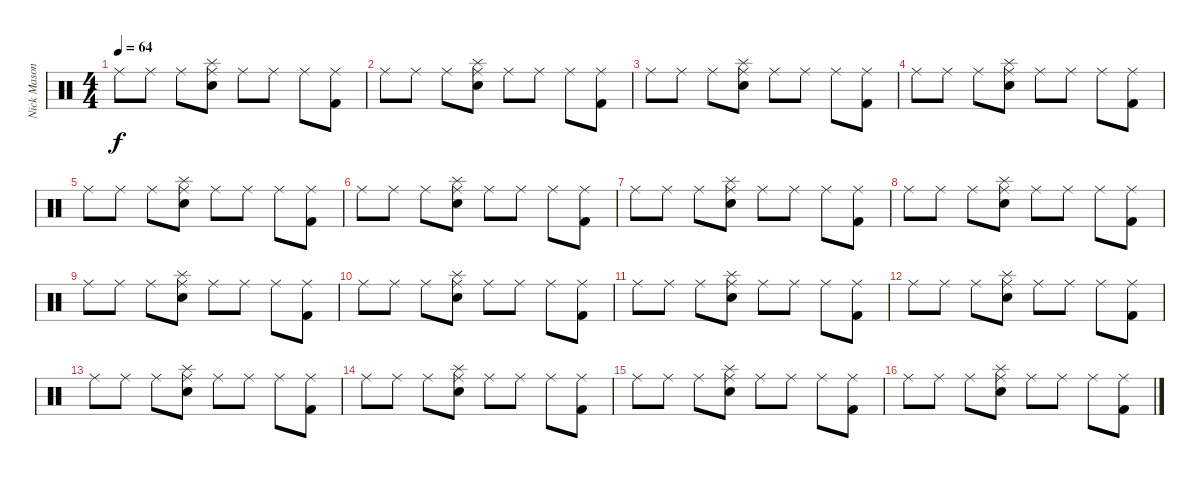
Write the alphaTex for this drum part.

\track ("Nick Mason" "Nick Mason") {instrument percussion}
\staff {score}
\articulation defaults
\ts (4 4)
\tempo 64
\clef neutral
\ks c "Ride (middle)".8{dy f} "Ride (middle)".8 "Ride (middle)".8
("Ride (middle)" "Splash (hit)" "Electric Snare (hit)").8 "Ride (middle)".8 "Ride (middle)".8 "Ride (middle)".8 ("Ride (middle)" "Kick (hit) 2").8 |
"Ride (middle)".8 "Ride (middle)".8 "Ride (middle)".8 ("Ride (middle)" "Splash (hit)" "Electric Snare (hit)").8 "Ride (middle)".8 "Ride (middle)".8 "Ride (middle)".8 ("Ride (middle)" "Kick (hit) 2").8 |
"Ride (middle)".8 "Ride (middle)".8 "Ride (middle)".8 ("Ride (middle)" "Splash (hit)" "Electric Snare (hit)").8 "Ride (middle)".8 "Ride (middle)".8 "Ride (middle)".8 ("Ride (middle)" "Kick (hit) 2").8 |
"Ride (middle)".8 "Ride (middle)".8 "Ride (middle)".8 ("Ride (middle)" "Splash (hit)" "Electric Snare (hit)").8 "Ride (middle)".8 "Ride (middle)".8 "Ride (middle)".8 ("Ride (middle)" "Kick (hit) 2").8 |
"Ride (middle)".8 "Ride (middle)".8 "Ride (middle)".8 ("Ride (middle)" "Splash (hit)" "Electric Snare (hit)").8 "Ride (middle)".8 "Ride (middle)".8 "Ride (middle)".8 ("Ride (middle)" "Kick (hit) 2").8 |
"Ride (middle)".8 "Ride (middle)".8 "Ride (middle)".8 ("Ride (middle)" "Splash (hit)" "Electric Snare (hit)").8 "Ride (middle)".8 "Ride (middle)".8 "Ride (middle)".8 ("Ride (middle)" "Kick (hit) 2").8 |
"Ride (middle)".8 "Ride (middle)".8 "Ride (middle)".8 ("Ride (middle)" "Splash (hit)" "Electric Snare (hit)").8 "Ride (middle)".8 "Ride (middle)".8 "Ride (middle)".8 ("Ride (middle)" "Kick (hit) 2").8 |
"Ride (middle)".8 "Ride (middle)".8 "Ride (middle)".8 ("Ride (middle)" "Splash (hit)" "Electric Snare (hit)").8 "Ride (middle)".8 "Ride (middle)".8 "Ride (middle)".8 ("Ride (middle)" "Kick (hit) 2").8 |
"Ride (middle)".8 "Ride (middle)".8 "Ride (middle)".8 ("Ride (middle)" "Splash (hit)" "Electric Snare (hit)").8 "Ride (middle)".8 "Ride (middle)".8 "Ride (middle)".8 ("Ride (middle)" "Kick (hit) 2").8 |
"Ride (middle)".8 "Ride (middle)".8 "Ride (middle)".8 ("Ride (middle)" "Splash (hit)" "Electric Snare (hit)").8 "Ride (middle)".8 "Ride (middle)".8 "Ride (middle)".8 ("Ride (middle)" "Kick (hit) 2").8 |
"Ride (middle)".8 "Ride (middle)".8 "Ride (middle)".8 ("Ride (middle)" "Splash (hit)" "Electric Snare (hit)").8 "Ride (middle)".8 "Ride (middle)".8 "Ride (middle)".8 ("Ride (middle)" "Kick (hit) 2").8 |
"Ride (middle)".8 "Ride (middle)".8 "Ride (middle)".8 ("Ride (middle)" "Splash (hit)" "Electric Snare (hit)").8 "Ride (middle)".8 "Ride (middle)".8 "Ride (middle)".8 ("Ride (middle)" "Kick (hit) 2").8 |
"Ride (middle)".8 "Ride (middle)".8 "Ride (middle)".8 ("Ride (middle)" "Splash (hit)" "Electric Snare (hit)").8 "Ride (middle)".8 "Ride (middle)".8 "Ride (middle)".8 ("Ride (middle)" "Kick (hit) 2").8 |
"Ride (middle)".8 "Ride (middle)".8 "Ride (middle)".8 ("Ride (middle)" "Splash (hit)" "Electric Snare (hit)").8 "Ride (middle)".8 "Ride (middle)".8 "Ride (middle)".8 ("Ride (middle)" "Kick (hit) 2").8 |
"Ride (middle)".8 "Ride (middle)".8 "Ride (middle)".8 ("Ride (middle)" "Splash (hit)" "Electric Snare (hit)").8 "Ride (middle)".8 "Ride (middle)".8 "Ride (middle)".8 ("Ride (middle)" "Kick (hit) 2").8 |
"Ride (middle)".8 "Ride (middle)".8 "Ride (middle)".8 ("Ride (middle)" "Splash (hit)" "Electric Snare (hit)").8 "Ride (middle)".8 "Ride (middle)".8 "Ride (middle)".8 ("Ride (middle)" "Kick (hit) 2").8
